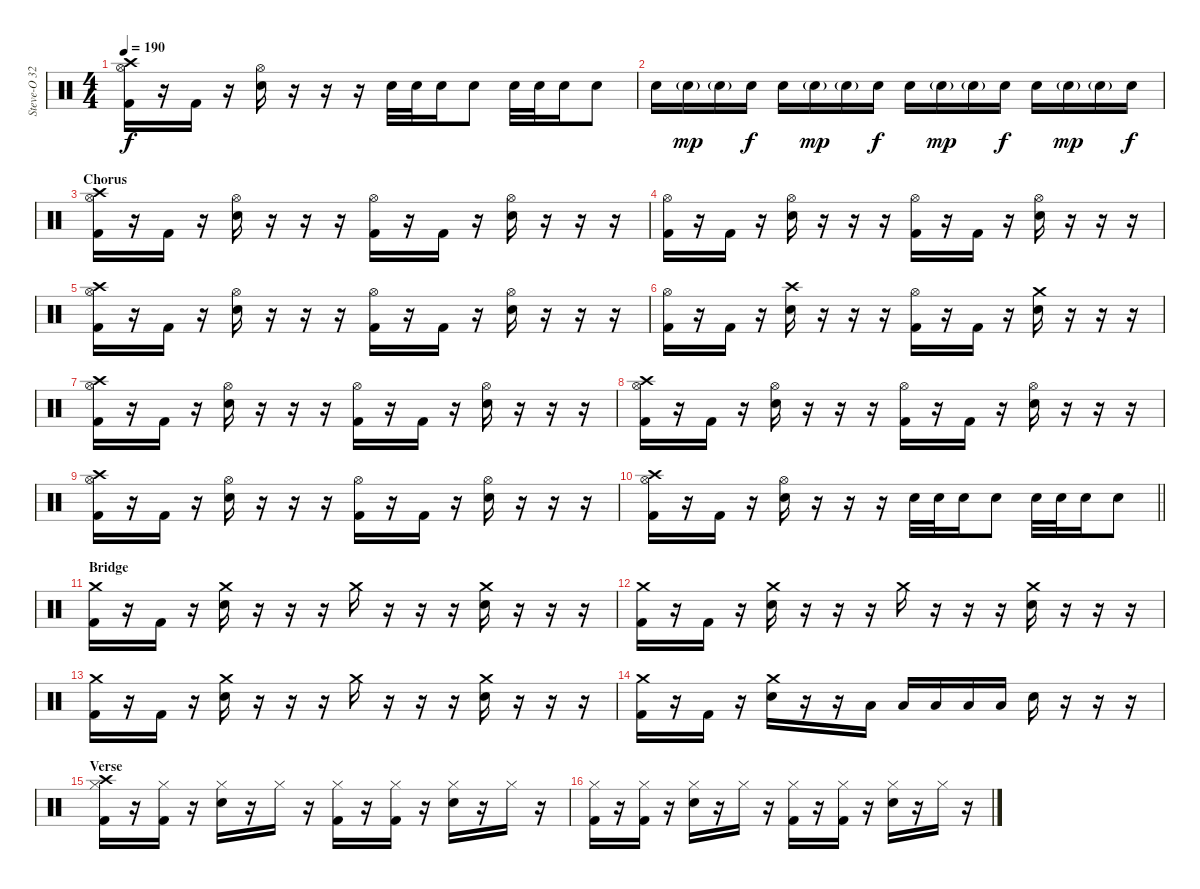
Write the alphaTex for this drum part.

\track ("Steve-O 32 ( Drums )" "Steve-O 32") {instrument percussion}
\staff {score}
\articulation defaults
\ts (4 4)
\tempo 190
\clef neutral
\ks c
("Hi-Hat (open)" "Crash high (hit)" "Kick (hit) 2").16{dy f} r.16 "Kick (hit) 2".16 r.16 ("Hi-Hat (open)" "Snare (hit) 2").16 r.16 r.16 r.16 "Snare (hit) 2".32 "Snare (hit) 2".32 "Snare (hit) 2".16 "Snare (hit) 2".8 "Snare (hit) 2".32 "Snare (hit) 2".32 "Snare (hit) 2".16 "Snare (hit) 2".8 |
"Snare (hit) 2".16 "Snare (hit) 2"{g}.16{dy mp} "Snare (hit) 2"{g}.16 "Snare (hit) 2".16{dy f} "Snare (hit) 2".16 "Snare (hit) 2"{g}.16{dy mp} "Snare (hit) 2"{g}.16 "Snare (hit) 2".16{dy f} "Snare (hit) 2".16 "Snare (hit) 2"{g}.16{dy mp} "Snare (hit) 2"{g}.16 "Snare (hit) 2".16{dy f} "Snare (hit) 2".16 "Snare (hit) 2"{g}.16{dy mp} "Snare (hit) 2"{g}.16 "Snare (hit) 2".16{dy f} |
\section ("" "Chorus")
("Hi-Hat (open)" "Crash high (hit)" "Kick (hit) 2").16 r.16 "Kick (hit) 2".16 r.16 ("Hi-Hat (open)" "Snare (hit) 2").16 r.16 r.16 r.16 ("Hi-Hat (open)" "Kick (hit) 2").16 r.16 "Kick (hit) 2".16 r.16 ("Hi-Hat (open)" "Snare (hit) 2").16 r.16 r.16 r.16 |
("Hi-Hat (open)" "Kick (hit) 2").16 r.16 "Kick (hit) 2".16 r.16 ("Hi-Hat (open)" "Snare (hit) 2").16 r.16 r.16 r.16 ("Hi-Hat (open)" "Kick (hit) 2").16 r.16 "Kick (hit) 2".16 r.16 ("Hi-Hat (open)" "Snare (hit) 2").16 r.16 r.16 r.16 |
("Hi-Hat (open)" "Crash high (hit)" "Kick (hit) 2").16 r.16 "Kick (hit) 2".16 r.16 ("Hi-Hat (open)" "Snare (hit) 2").16 r.16 r.16 r.16 ("Hi-Hat (open)" "Kick (hit) 2").16 r.16 "Kick (hit) 2".16 r.16 ("Hi-Hat (open)" "Snare (hit) 2").16 r.16 r.16 r.16 |
("Hi-Hat (open)" "Kick (hit) 2").16 r.16 "Kick (hit) 2".16 r.16 ("Crash high (hit)" "Snare (hit) 2").16 r.16 r.16 r.16 ("Hi-Hat (open)" "Kick (hit) 2").16 r.16 "Kick (hit) 2".16 r.16 ("Crash medium (hit)" "Snare (hit) 2").16 r.16 r.16 r.16 |
("Hi-Hat (open)" "Crash high (hit)" "Kick (hit) 2").16 r.16 "Kick (hit) 2".16 r.16 ("Hi-Hat (open)" "Snare (hit) 2").16 r.16 r.16 r.16 ("Hi-Hat (open)" "Kick (hit) 2").16 r.16 "Kick (hit) 2".16 r.16 ("Hi-Hat (open)" "Snare (hit) 2").16 r.16 r.16 r.16 |
("Hi-Hat (open)" "Crash high (hit)" "Kick (hit) 2").16 r.16 "Kick (hit) 2".16 r.16 ("Hi-Hat (open)" "Snare (hit) 2").16 r.16 r.16 r.16 ("Hi-Hat (open)" "Kick (hit) 2").16 r.16 "Kick (hit) 2".16 r.16 ("Hi-Hat (open)" "Snare (hit) 2").16 r.16 r.16 r.16 |
("Hi-Hat (open)" "Crash high (hit)" "Kick (hit) 2").16 r.16 "Kick (hit) 2".16 r.16 ("Hi-Hat (open)" "Snare (hit) 2").16 r.16 r.16 r.16 ("Hi-Hat (open)" "Kick (hit) 2").16 r.16 "Kick (hit) 2".16 r.16 ("Hi-Hat (open)" "Snare (hit) 2").16 r.16 r.16 r.16 |
\barLineRight lightlight
("Hi-Hat (open)" "Crash high (hit)" "Kick (hit) 2").16 r.16 "Kick (hit) 2".16 r.16 ("Hi-Hat (open)" "Snare (hit) 2").16 r.16 r.16 r.16 "Snare (hit) 2".32 "Snare (hit) 2".32 "Snare (hit) 2".16 "Snare (hit) 2".8 "Snare (hit) 2".32 "Snare (hit) 2".32 "Snare (hit) 2".16 "Snare (hit) 2".8 |
\section ("" "Bridge")
("Crash medium (hit)" "Kick (hit) 2").16 r.16 "Kick (hit) 2".16 r.16 ("Crash medium (hit)" "Snare (hit) 2").16 r.16 r.16 r.16 "Crash medium (hit)".16 r.16 r.16 r.16 ("Crash medium (hit)" "Snare (hit) 2").16 r.16 r.16 r.16 |
("Crash medium (hit)" "Kick (hit) 2").16 r.16 "Kick (hit) 2".16 r.16 ("Crash medium (hit)" "Snare (hit) 2").16 r.16 r.16 r.16 "Crash medium (hit)".16 r.16 r.16 r.16 ("Crash medium (hit)" "Snare (hit) 2").16 r.16 r.16 r.16 |
("Crash medium (hit)" "Kick (hit) 2").16 r.16 "Kick (hit) 2".16 r.16 ("Crash medium (hit)" "Snare (hit) 2").16 r.16 r.16 r.16 "Crash medium (hit)".16 r.16 r.16 r.16 ("Crash medium (hit)" "Snare (hit) 2").16 r.16 r.16 r.16 |
("Crash medium (hit)" "Kick (hit) 2").16 r.16 "Kick (hit) 2".16 r.16 ("Crash medium (hit)" "Snare (hit) 2").16 r.16 r.16 "Low Floor Tom (hit)".16 "Low Floor Tom (hit)".16 "Low Floor Tom (hit)".16 "Low Floor Tom (hit)".16 "Low Floor Tom (hit)".16 "Snare (hit) 2".16 r.16 r.16 r.16 |
\section ("" "Verse")
("Hi-Hat (closed)" "Crash high (hit)" "Kick (hit) 2").16 r.16 ("Hi-Hat (closed)" "Kick (hit) 2").16 r.16 ("Hi-Hat (closed)" "Snare (hit) 2").16 r.16 "Hi-Hat (closed)".16 r.16 ("Hi-Hat (closed)" "Kick (hit) 2").16 r.16 ("Hi-Hat (closed)" "Kick (hit) 2").16 r.16 ("Hi-Hat (closed)" "Snare (hit) 2").16 r.16 "Hi-Hat (closed)".16 r.16 |
("Hi-Hat (closed)" "Kick (hit) 2").16 r.16 ("Hi-Hat (closed)" "Kick (hit) 2").16 r.16 ("Hi-Hat (closed)" "Snare (hit) 2").16 r.16 "Hi-Hat (closed)".16 r.16 ("Hi-Hat (closed)" "Kick (hit) 2").16 r.16 ("Hi-Hat (closed)" "Kick (hit) 2").16 r.16 ("Hi-Hat (closed)" "Snare (hit) 2").16 r.16 "Hi-Hat (closed)".16 r.16
